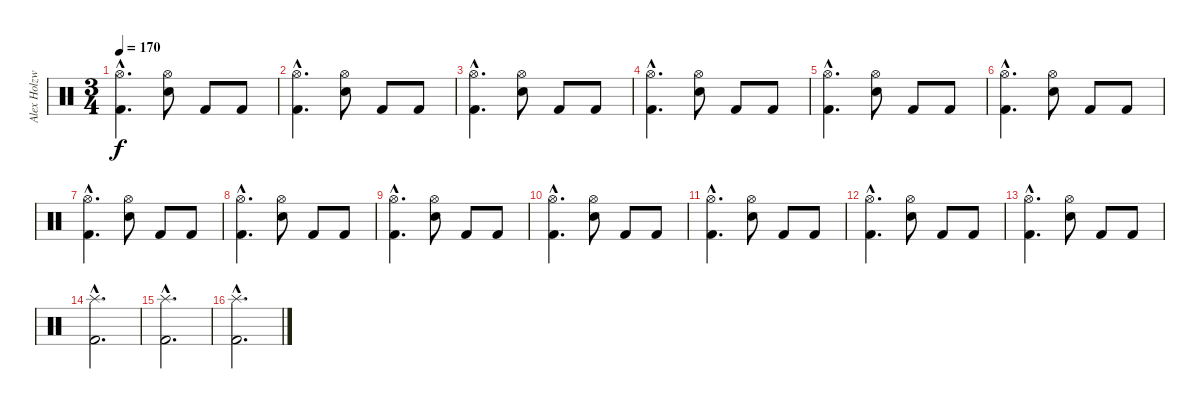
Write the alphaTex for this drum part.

\track ("Alex Holzwarth - Drums" "Alex Holzw") {instrument percussion}
\staff {score}
\articulation defaults
\ts (3 4)
\tempo 170
\clef neutral
\ks c
("Hi-Hat (open)"{hac} "Kick (hit) 2"{hac}).4{d dy f} ("Hi-Hat (open)" "Snare (hit) 2").8 "Kick (hit) 2".8 "Kick (hit) 2".8 |
("Hi-Hat (open)"{hac} "Kick (hit) 2"{hac}).4{d} ("Hi-Hat (open)" "Snare (hit) 2").8 "Kick (hit) 2".8 "Kick (hit) 2".8 |
("Hi-Hat (open)"{hac} "Kick (hit) 2"{hac}).4{d} ("Hi-Hat (open)" "Snare (hit) 2").8 "Kick (hit) 2".8 "Kick (hit) 2".8 |
("Hi-Hat (open)"{hac} "Kick (hit) 2"{hac}).4{d} ("Hi-Hat (open)" "Snare (hit) 2").8 "Kick (hit) 2".8 "Kick (hit) 2".8 |
("Hi-Hat (open)"{hac} "Kick (hit) 2"{hac}).4{d} ("Hi-Hat (open)" "Snare (hit) 2").8 "Kick (hit) 2".8 "Kick (hit) 2".8 |
("Hi-Hat (open)"{hac} "Kick (hit) 2"{hac}).4{d} ("Hi-Hat (open)" "Snare (hit) 2").8 "Kick (hit) 2".8 "Kick (hit) 2".8 |
("Hi-Hat (open)"{hac} "Kick (hit) 2"{hac}).4{d} ("Hi-Hat (open)" "Snare (hit) 2").8 "Kick (hit) 2".8 "Kick (hit) 2".8 |
("Hi-Hat (open)"{hac} "Kick (hit) 2"{hac}).4{d} ("Hi-Hat (open)" "Snare (hit) 2").8 "Kick (hit) 2".8 "Kick (hit) 2".8 |
("Hi-Hat (open)"{hac} "Kick (hit) 2"{hac}).4{d} ("Hi-Hat (open)" "Snare (hit) 2").8 "Kick (hit) 2".8 "Kick (hit) 2".8 |
("Hi-Hat (open)"{hac} "Kick (hit) 2"{hac}).4{d} ("Hi-Hat (open)" "Snare (hit) 2").8 "Kick (hit) 2".8 "Kick (hit) 2".8 |
("Hi-Hat (open)"{hac} "Kick (hit) 2"{hac}).4{d} ("Hi-Hat (open)" "Snare (hit) 2").8 "Kick (hit) 2".8 "Kick (hit) 2".8 |
("Hi-Hat (open)"{hac} "Kick (hit) 2"{hac}).4{d} ("Hi-Hat (open)" "Snare (hit) 2").8 "Kick (hit) 2".8 "Kick (hit) 2".8 |
("Hi-Hat (open)"{hac} "Kick (hit) 2"{hac}).4{d} ("Hi-Hat (open)" "Snare (hit) 2").8 "Kick (hit) 2".8 "Kick (hit) 2".8 |
("Splash (hit)"{hac} "Kick (hit) 2"{hac}).2{d} |
("Splash (hit)"{hac} "Kick (hit) 2"{hac}).2{d} |
("Splash (hit)"{hac} "Kick (hit) 2"{hac}).2{d}
